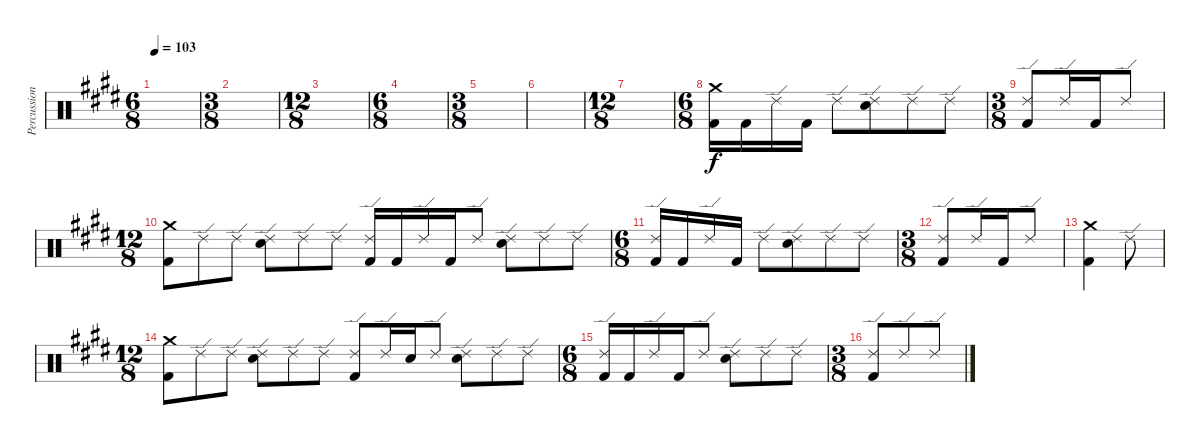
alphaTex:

\track ("Percussion" "Percussion") {instrument percussion}
\staff {score}
\articulation defaults
\ts (6 8)
\tempo 103
\clef neutral
\ks e
|
\ts (3 8)
\ks c#minor
|
\ts (12 8)
|
\ts (6 8)
\ks e
|
\ts (3 8)
\ks c#minor
|
|
\ts (12 8)
|
\ts (6 8)
\ks e
("Crash medium (hit)" "Kick (hit) 2").16{beam merge} "Kick (hit) 2".16{beam merge} "Ride (edge) 2".16{beam merge} "Kick (hit) 2".16{beam split} "Ride (edge) 2".8{beam merge} ("Ride (edge) 2" "Electric Snare (hit)").8{beam merge} "Ride (edge) 2".8 "Ride (edge) 2".8 |
\ts (3 8)
\ks c#minor
("Ride (edge) 2" "Kick (hit) 2").8{beam merge} "Ride (edge) 2".16 "Kick (hit) 2".16{beam merge} "Ride (edge) 2".8 |
\ts (12 8)
("Crash medium (hit)" "Kick (hit) 2").8{beam merge} "Ride (edge) 2".8{beam merge} "Ride (edge) 2".8{beam split} ("Ride (edge) 2" "Electric Snare (hit)").8{beam merge} "Ride (edge) 2".8{beam merge} "Ride (edge) 2".8 ("Ride (edge) 2" "Kick (hit) 2").16 "Kick (hit) 2".16 "Ride (edge) 2".16 "Kick (hit) 2".16 "Ride (edge) 2".8 ("Ride (edge) 2" "Electric Snare (hit)").8 "Ride (edge) 2".8 "Ride (edge) 2".8 |
\ts (6 8)
\ks e
("Ride (edge) 2" "Kick (hit) 2").16{beam merge} "Kick (hit) 2".16{beam merge} "Ride (edge) 2".16{beam merge} "Kick (hit) 2".16{beam split} "Ride (edge) 2".8{beam merge} ("Ride (edge) 2" "Electric Snare (hit)").8{beam merge} "Ride (edge) 2".8 "Ride (edge) 2".8 |
\ts (3 8)
\ks c#minor
("Ride (edge) 2" "Kick (hit) 2").8{beam merge} "Ride (edge) 2".16 "Kick (hit) 2".16{beam merge} "Ride (edge) 2".8 |
("Crash medium (hit)" "Kick (hit) 2").4 "Ride (edge) 2".8 |
\ts (12 8)
("Crash medium (hit)" "Kick (hit) 2").8 "Ride (edge) 2".8 "Ride (edge) 2".8 ("Ride (edge) 2" "Electric Snare (hit)").8 "Ride (edge) 2".8 "Ride (edge) 2".8 ("Ride (edge) 2" "Kick (hit) 2").8 "Ride (edge) 2".16 "Electric Snare (hit)".16 "Ride (edge) 2".8 ("Ride (edge) 2" "Electric Snare (hit)").8 "Ride (edge) 2".8 "Ride (edge) 2".8 |
\ts (6 8)
\ks e
("Ride (edge) 2" "Kick (hit) 2").16 "Kick (hit) 2".16 "Ride (edge) 2".16 "Kick (hit) 2".16 "Ride (edge) 2".8 ("Ride (edge) 2" "Electric Snare (hit)").8 "Ride (edge) 2".8 "Ride (edge) 2".8 |
\ts (3 8)
\ks c#minor
("Ride (edge) 2" "Kick (hit) 2").8 "Ride (edge) 2".8 "Ride (edge) 2".8
